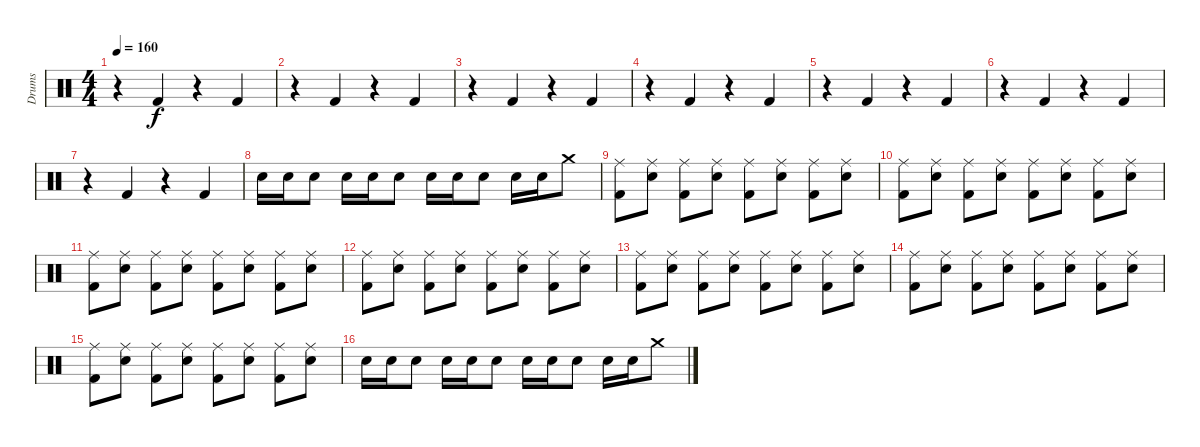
\track ("Drums" "Drums") {instrument percussion}
\staff {score}
\articulation defaults
\ts (4 4)
\tempo 160
\clef neutral
\ks c
r.4{dy f} "Kick (hit) 2".4 r.4 "Kick (hit) 2".4 |
r.4 "Kick (hit) 2".4 r.4 "Kick (hit) 2".4 |
r.4 "Kick (hit) 2".4 r.4 "Kick (hit) 2".4 |
r.4 "Kick (hit) 2".4 r.4 "Kick (hit) 2".4 |
r.4 "Kick (hit) 2".4 r.4 "Kick (hit) 2".4 |
r.4 "Kick (hit) 2".4 r.4 "Kick (hit) 2".4 |
r.4 "Kick (hit) 2".4 r.4 "Kick (hit) 2".4 |
"Electric Snare (hit)".16 "Electric Snare (hit)".16 "Electric Snare (hit)".8 "Electric Snare (hit)".16 "Electric Snare (hit)".16 "Electric Snare (hit)".8 "Electric Snare (hit)".16 "Electric Snare (hit)".16 "Electric Snare (hit)".8 "Electric Snare (hit)".16 "Electric Snare (hit)".16 "Crash medium (hit)".8 |
("Ride (middle)" "Kick (hit) 2").8 ("Ride (middle)" "Electric Snare (hit)").8 ("Ride (middle)" "Kick (hit) 2").8 ("Ride (middle)" "Electric Snare (hit)").8 ("Ride (middle)" "Kick (hit) 2").8 ("Ride (middle)" "Electric Snare (hit)").8 ("Ride (middle)" "Kick (hit) 2").8 ("Ride (middle)" "Electric Snare (hit)").8 |
("Ride (middle)" "Kick (hit) 2").8 ("Ride (middle)" "Electric Snare (hit)").8 ("Ride (middle)" "Kick (hit) 2").8 ("Ride (middle)" "Electric Snare (hit)").8 ("Ride (middle)" "Kick (hit) 2").8 ("Ride (middle)" "Electric Snare (hit)").8 ("Ride (middle)" "Kick (hit) 2").8 ("Ride (middle)" "Electric Snare (hit)").8 |
("Ride (middle)" "Kick (hit) 2").8 ("Ride (middle)" "Electric Snare (hit)").8 ("Ride (middle)" "Kick (hit) 2").8 ("Ride (middle)" "Electric Snare (hit)").8 ("Ride (middle)" "Kick (hit) 2").8 ("Ride (middle)" "Electric Snare (hit)").8 ("Ride (middle)" "Kick (hit) 2").8 ("Ride (middle)" "Electric Snare (hit)").8 |
("Ride (middle)" "Kick (hit) 2").8 ("Ride (middle)" "Electric Snare (hit)").8 ("Ride (middle)" "Kick (hit) 2").8 ("Ride (middle)" "Electric Snare (hit)").8 ("Ride (middle)" "Kick (hit) 2").8 ("Ride (middle)" "Electric Snare (hit)").8 ("Ride (middle)" "Kick (hit) 2").8 ("Ride (middle)" "Electric Snare (hit)").8 |
("Ride (middle)" "Kick (hit) 2").8 ("Ride (middle)" "Electric Snare (hit)").8 ("Ride (middle)" "Kick (hit) 2").8 ("Ride (middle)" "Electric Snare (hit)").8 ("Ride (middle)" "Kick (hit) 2").8 ("Ride (middle)" "Electric Snare (hit)").8 ("Ride (middle)" "Kick (hit) 2").8 ("Ride (middle)" "Electric Snare (hit)").8 |
("Ride (middle)" "Kick (hit) 2").8 ("Ride (middle)" "Electric Snare (hit)").8 ("Ride (middle)" "Kick (hit) 2").8 ("Ride (middle)" "Electric Snare (hit)").8 ("Ride (middle)" "Kick (hit) 2").8 ("Ride (middle)" "Electric Snare (hit)").8 ("Ride (middle)" "Kick (hit) 2").8 ("Ride (middle)" "Electric Snare (hit)").8 |
("Ride (middle)" "Kick (hit) 2").8 ("Ride (middle)" "Electric Snare (hit)").8 ("Ride (middle)" "Kick (hit) 2").8 ("Ride (middle)" "Electric Snare (hit)").8 ("Ride (middle)" "Kick (hit) 2").8 ("Ride (middle)" "Electric Snare (hit)").8 ("Ride (middle)" "Kick (hit) 2").8 ("Ride (middle)" "Electric Snare (hit)").8 |
"Electric Snare (hit)".16 "Electric Snare (hit)".16 "Electric Snare (hit)".8 "Electric Snare (hit)".16 "Electric Snare (hit)".16 "Electric Snare (hit)".8 "Electric Snare (hit)".16 "Electric Snare (hit)".16 "Electric Snare (hit)".8 "Electric Snare (hit)".16 "Electric Snare (hit)".16 "Crash medium (hit)".8
